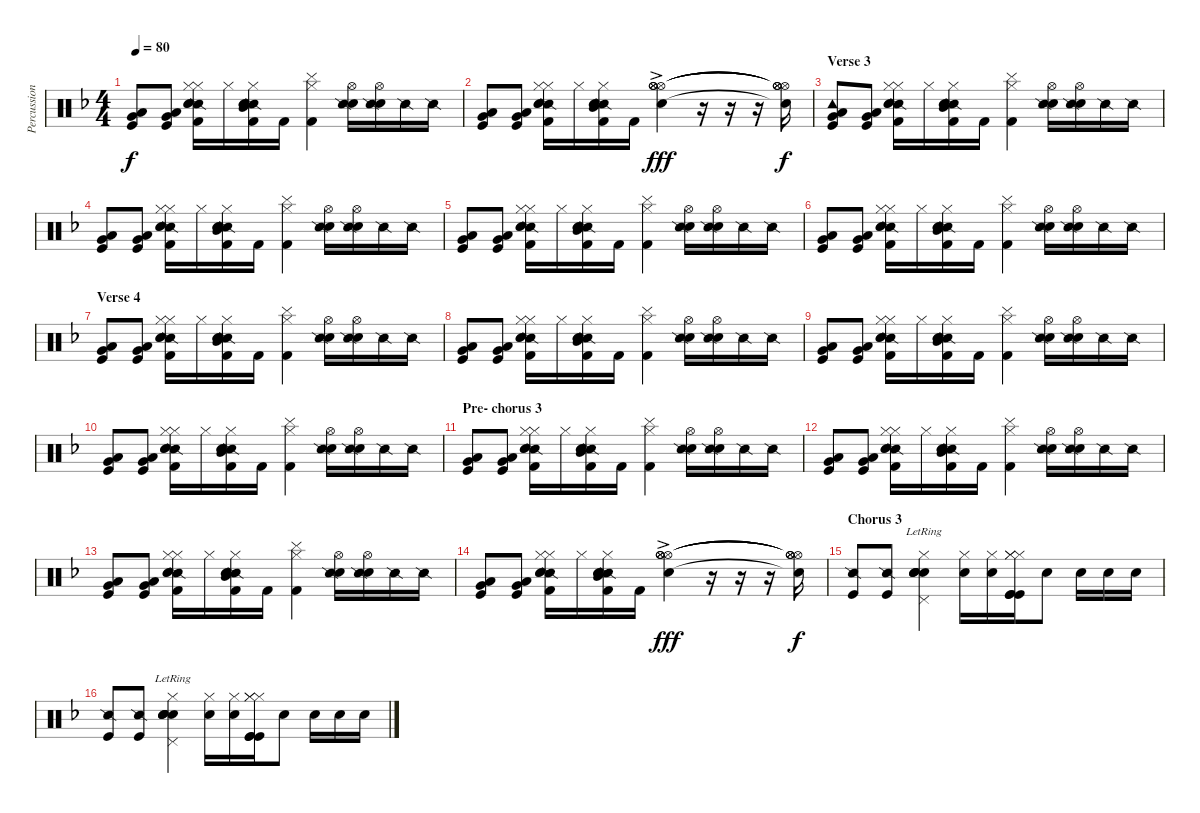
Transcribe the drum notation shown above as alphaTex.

\track ("Percussion" "Percussion") {instrument percussion}
\staff {score}
\articulation defaults
\ts (4 4)
\tempo 80
\clef neutral
\ks dminor
("Kick (hit)" "Low Floor Tom (hit)" "Very Low Tom (hit)").8{dy f volume 14} ("Kick (hit)" "Low Floor Tom (hit)" "Very Low Tom (hit)").8 ("Kick (hit) 2" "Hi-Hat (closed)" "Snare (side stick) 2" "Snare (hit) 2" "Electric Snare (hit)" "Hi-Hat (closed)").16 "Hi-Hat (closed)".16 ("Kick (hit) 2" "Hi-Hat (closed)" "Snare (side stick) 2" "Snare (hit) 2" "Electric Snare (hit)" "Mid Tom (hit)").16 "Kick (hit) 2".16 ("Kick (hit) 2" "Hi-Hat (closed)" "Cymbal (hit)").4 ("Electric Snare (hit)" "Hi-Hat (open)" "Snare (side stick) 2").16 ("Electric Snare (hit)" "Hi-Hat (open)" "Snare (side stick) 2").16 "Snare (side stick) 2".16 "Snare (side stick) 2".16 |
("Kick (hit)" "Low Floor Tom (hit)" "Very Low Tom (hit)").8{volume 14} ("Kick (hit)" "Low Floor Tom (hit)" "Very Low Tom (hit)").8 ("Kick (hit) 2" "Hi-Hat (closed)" "Snare (side stick) 2" "Snare (hit) 2" "Electric Snare (hit)" "Hi-Hat (closed)").16 "Hi-Hat (closed)".16 ("Kick (hit) 2" "Hi-Hat (closed)" "Snare (side stick) 2" "Snare (hit) 2" "Electric Snare (hit)" "Mid Tom (hit)").16 "Kick (hit) 2".16 ("Electric Snare (hit)"{ac} "Hi-Hat (open)"{ac} "Hi-Hat (open)"{ac} "Hi-Hat (open)"{ac} "Hi-Hat (open)"{ac}).4{dy fff} r.16 r.16 r.16 ("Electric Snare (hit)"{t} "Hi-Hat (open)"{t} "Hi-Hat (open)"{t} "Hi-Hat (open)"{t} "Hi-Hat (open)"{t}).16{dy f} |
\section ("" "Verse 3")
("Kick (hit)" "Low Floor Tom (hit)" "Very Low Tom (hit)" "Tambourine (hit)").8 ("Kick (hit)" "Low Floor Tom (hit)" "Very Low Tom (hit)").8 ("Kick (hit) 2" "Hi-Hat (closed)" "Snare (side stick) 2" "Snare (hit) 2" "Electric Snare (hit)" "Hi-Hat (closed)").16 "Hi-Hat (closed)".16 ("Kick (hit) 2" "Hi-Hat (closed)" "Snare (side stick) 2" "Snare (hit) 2" "Electric Snare (hit)" "Mid Tom (hit)").16 "Kick (hit) 2".16 ("Kick (hit) 2" "Hi-Hat (closed)" "Cymbal (hit)").4 ("Electric Snare (hit)" "Hi-Hat (open)" "Snare (side stick) 2").16 ("Electric Snare (hit)" "Hi-Hat (open)" "Snare (side stick) 2").16 "Snare (side stick) 2".16 "Snare (side stick) 2".16 |
("Kick (hit)" "Low Floor Tom (hit)" "Very Low Tom (hit)").8 ("Kick (hit)" "Low Floor Tom (hit)" "Very Low Tom (hit)").8 ("Kick (hit) 2" "Hi-Hat (closed)" "Snare (side stick) 2" "Snare (hit) 2" "Electric Snare (hit)" "Hi-Hat (closed)").16 "Hi-Hat (closed)".16 ("Kick (hit) 2" "Hi-Hat (closed)" "Snare (side stick) 2" "Snare (hit) 2" "Electric Snare (hit)" "Mid Tom (hit)").16 "Kick (hit) 2".16 ("Kick (hit) 2" "Hi-Hat (closed)" "Cymbal (hit)").4 ("Electric Snare (hit)" "Hi-Hat (open)" "Snare (side stick) 2").16 ("Electric Snare (hit)" "Hi-Hat (open)" "Snare (side stick) 2").16 "Snare (side stick) 2".16 "Snare (side stick) 2".16 |
("Kick (hit)" "Low Floor Tom (hit)" "Very Low Tom (hit)").8 ("Kick (hit)" "Low Floor Tom (hit)" "Very Low Tom (hit)").8 ("Kick (hit) 2" "Hi-Hat (closed)" "Snare (side stick) 2" "Snare (hit) 2" "Electric Snare (hit)" "Hi-Hat (closed)").16 "Hi-Hat (closed)".16 ("Kick (hit) 2" "Hi-Hat (closed)" "Snare (side stick) 2" "Snare (hit) 2" "Electric Snare (hit)" "Mid Tom (hit)").16 "Kick (hit) 2".16 ("Kick (hit) 2" "Hi-Hat (closed)" "Cymbal (hit)").4 ("Electric Snare (hit)" "Hi-Hat (open)" "Snare (side stick) 2").16 ("Electric Snare (hit)" "Hi-Hat (open)" "Snare (side stick) 2").16 "Snare (side stick) 2".16 "Snare (side stick) 2".16 |
("Kick (hit)" "Low Floor Tom (hit)" "Very Low Tom (hit)").8 ("Kick (hit)" "Low Floor Tom (hit)" "Very Low Tom (hit)").8 ("Kick (hit) 2" "Hi-Hat (closed)" "Snare (side stick) 2" "Snare (hit) 2" "Electric Snare (hit)" "Hi-Hat (closed)").16 "Hi-Hat (closed)".16 ("Kick (hit) 2" "Hi-Hat (closed)" "Snare (side stick) 2" "Snare (hit) 2" "Electric Snare (hit)" "Mid Tom (hit)").16 "Kick (hit) 2".16 ("Kick (hit) 2" "Hi-Hat (closed)" "Cymbal (hit)").4 ("Electric Snare (hit)" "Hi-Hat (open)" "Snare (side stick) 2").16 ("Electric Snare (hit)" "Hi-Hat (open)" "Snare (side stick) 2").16 "Snare (side stick) 2".16 "Snare (side stick) 2".16 |
\section ("" "Verse 4")
("Kick (hit)" "Low Floor Tom (hit)" "Very Low Tom (hit)").8 ("Kick (hit)" "Low Floor Tom (hit)" "Very Low Tom (hit)").8 ("Kick (hit) 2" "Hi-Hat (closed)" "Snare (side stick) 2" "Snare (hit) 2" "Electric Snare (hit)" "Hi-Hat (closed)").16 "Hi-Hat (closed)".16 ("Kick (hit) 2" "Hi-Hat (closed)" "Snare (side stick) 2" "Snare (hit) 2" "Electric Snare (hit)" "Mid Tom (hit)").16 "Kick (hit) 2".16 ("Kick (hit) 2" "Hi-Hat (closed)" "Cymbal (hit)").4 ("Electric Snare (hit)" "Hi-Hat (open)" "Snare (side stick) 2").16 ("Electric Snare (hit)" "Hi-Hat (open)" "Snare (side stick) 2").16 "Snare (side stick) 2".16 "Snare (side stick) 2".16 |
("Kick (hit)" "Low Floor Tom (hit)" "Very Low Tom (hit)").8 ("Kick (hit)" "Low Floor Tom (hit)" "Very Low Tom (hit)").8 ("Kick (hit) 2" "Hi-Hat (closed)" "Snare (side stick) 2" "Snare (hit) 2" "Electric Snare (hit)" "Hi-Hat (closed)").16 "Hi-Hat (closed)".16 ("Kick (hit) 2" "Hi-Hat (closed)" "Snare (side stick) 2" "Snare (hit) 2" "Electric Snare (hit)" "Mid Tom (hit)").16 "Kick (hit) 2".16 ("Kick (hit) 2" "Hi-Hat (closed)" "Cymbal (hit)").4 ("Electric Snare (hit)" "Hi-Hat (open)" "Snare (side stick) 2").16 ("Electric Snare (hit)" "Hi-Hat (open)" "Snare (side stick) 2").16 "Snare (side stick) 2".16 "Snare (side stick) 2".16 |
("Kick (hit)" "Low Floor Tom (hit)" "Very Low Tom (hit)").8 ("Kick (hit)" "Low Floor Tom (hit)" "Very Low Tom (hit)").8 ("Kick (hit) 2" "Hi-Hat (closed)" "Snare (side stick) 2" "Snare (hit) 2" "Electric Snare (hit)" "Hi-Hat (closed)").16 "Hi-Hat (closed)".16 ("Kick (hit) 2" "Hi-Hat (closed)" "Snare (side stick) 2" "Snare (hit) 2" "Electric Snare (hit)" "Mid Tom (hit)").16 "Kick (hit) 2".16 ("Kick (hit) 2" "Hi-Hat (closed)" "Cymbal (hit)").4 ("Electric Snare (hit)" "Hi-Hat (open)" "Snare (side stick) 2").16 ("Electric Snare (hit)" "Hi-Hat (open)" "Snare (side stick) 2").16 "Snare (side stick) 2".16 "Snare (side stick) 2".16 |
("Kick (hit)" "Low Floor Tom (hit)" "Very Low Tom (hit)").8 ("Kick (hit)" "Low Floor Tom (hit)" "Very Low Tom (hit)").8 ("Kick (hit) 2" "Hi-Hat (closed)" "Snare (side stick) 2" "Snare (hit) 2" "Electric Snare (hit)" "Hi-Hat (closed)").16 "Hi-Hat (closed)".16 ("Kick (hit) 2" "Hi-Hat (closed)" "Snare (side stick) 2" "Snare (hit) 2" "Electric Snare (hit)" "Mid Tom (hit)").16 "Kick (hit) 2".16 ("Kick (hit) 2" "Hi-Hat (closed)" "Cymbal (hit)").4 ("Electric Snare (hit)" "Hi-Hat (open)" "Snare (side stick) 2").16 ("Electric Snare (hit)" "Hi-Hat (open)" "Snare (side stick) 2").16 "Snare (side stick) 2".16 "Snare (side stick) 2".16 |
\section ("" "Pre- chorus 3")
("Kick (hit)" "Low Floor Tom (hit)" "Very Low Tom (hit)").8 ("Kick (hit)" "Low Floor Tom (hit)" "Very Low Tom (hit)").8 ("Kick (hit) 2" "Hi-Hat (closed)" "Snare (side stick) 2" "Snare (hit) 2" "Electric Snare (hit)" "Hi-Hat (closed)").16 "Hi-Hat (closed)".16 ("Kick (hit) 2" "Hi-Hat (closed)" "Snare (side stick) 2" "Snare (hit) 2" "Electric Snare (hit)" "Mid Tom (hit)").16 "Kick (hit) 2".16 ("Kick (hit) 2" "Hi-Hat (closed)" "Cymbal (hit)").4 ("Electric Snare (hit)" "Hi-Hat (open)" "Snare (side stick) 2").16 ("Electric Snare (hit)" "Hi-Hat (open)" "Snare (side stick) 2").16 "Snare (side stick) 2".16 "Snare (side stick) 2".16 |
("Kick (hit)" "Low Floor Tom (hit)" "Very Low Tom (hit)").8 ("Kick (hit)" "Low Floor Tom (hit)" "Very Low Tom (hit)").8 ("Kick (hit) 2" "Hi-Hat (closed)" "Snare (side stick) 2" "Snare (hit) 2" "Electric Snare (hit)" "Hi-Hat (closed)").16 "Hi-Hat (closed)".16 ("Kick (hit) 2" "Hi-Hat (closed)" "Snare (side stick) 2" "Snare (hit) 2" "Electric Snare (hit)" "Mid Tom (hit)").16 "Kick (hit) 2".16 ("Kick (hit) 2" "Hi-Hat (closed)" "Cymbal (hit)").4 ("Electric Snare (hit)" "Hi-Hat (open)" "Snare (side stick) 2").16 ("Electric Snare (hit)" "Hi-Hat (open)" "Snare (side stick) 2").16 "Snare (side stick) 2".16 "Snare (side stick) 2".16 |
("Kick (hit)" "Low Floor Tom (hit)" "Very Low Tom (hit)").8 ("Kick (hit)" "Low Floor Tom (hit)" "Very Low Tom (hit)").8 ("Kick (hit) 2" "Hi-Hat (closed)" "Snare (side stick) 2" "Snare (hit) 2" "Electric Snare (hit)" "Hi-Hat (closed)").16 "Hi-Hat (closed)".16 ("Kick (hit) 2" "Hi-Hat (closed)" "Snare (side stick) 2" "Snare (hit) 2" "Electric Snare (hit)" "Mid Tom (hit)").16 "Kick (hit) 2".16 ("Kick (hit) 2" "Hi-Hat (closed)" "Cymbal (hit)").4 ("Electric Snare (hit)" "Hi-Hat (open)" "Snare (side stick) 2").16 ("Electric Snare (hit)" "Hi-Hat (open)" "Snare (side stick) 2").16 "Snare (side stick) 2".16 "Snare (side stick) 2".16 |
("Kick (hit)" "Low Floor Tom (hit)" "Very Low Tom (hit)").8 ("Kick (hit)" "Low Floor Tom (hit)" "Very Low Tom (hit)").8 ("Kick (hit) 2" "Hi-Hat (closed)" "Snare (side stick) 2" "Snare (hit) 2" "Electric Snare (hit)" "Hi-Hat (closed)").16 "Hi-Hat (closed)".16 ("Kick (hit) 2" "Hi-Hat (closed)" "Snare (side stick) 2" "Snare (hit) 2" "Electric Snare (hit)" "Mid Tom (hit)").16 "Kick (hit) 2".16 ("Electric Snare (hit)"{ac} "Hi-Hat (open)"{ac} "Hi-Hat (open)"{ac} "Hi-Hat (open)"{ac} "Hi-Hat (open)"{ac}).4{dy fff} r.16 r.16 r.16 ("Electric Snare (hit)"{t} "Hi-Hat (open)"{t} "Hi-Hat (open)"{t} "Hi-Hat (open)"{t} "Hi-Hat (open)"{t}).16{dy f} |
\section ("" "Chorus 3")
("Kick (hit)" "Snare (side stick) 2").8{volume 13} ("Kick (hit)" "Snare (side stick) 2").8 ("Snare (hit) 2"{lr} "Snare (hit) 2"{lr} "Pedal Hi-Hat (hit)"{lr} "Hi-Hat (closed)"{lr} "Electric Snare (hit)"{lr} "Hand Clap (hit)"{lr}).4 ("Hi-Hat (closed)" "Electric Snare (hit)").16 ("Hi-Hat (closed)" "Electric Snare (hit)").16 ("Hi-Hat (closed)" "Hi-Hat (closed)" "Hi-Hat (closed)" "Kick (hit)" "Kick (hit)" "Kick (hit)").16 "Hand Clap (hit)".8 "Snare (hit) 2".16 "Snare (hit) 2".16 "Snare (hit) 2".16 |
("Kick (hit)" "Snare (side stick) 2").8{volume 14} ("Kick (hit)" "Snare (side stick) 2").8 ("Snare (hit) 2"{lr} "Snare (hit) 2"{lr} "Pedal Hi-Hat (hit)"{lr} "Hi-Hat (closed)"{lr} "Electric Snare (hit)"{lr} "Hand Clap (hit)"{lr}).4 ("Hi-Hat (closed)" "Electric Snare (hit)").16 ("Hi-Hat (closed)" "Electric Snare (hit)").16 ("Hi-Hat (closed)" "Hi-Hat (closed)" "Hi-Hat (closed)" "Kick (hit)" "Kick (hit)" "Kick (hit)").16 "Hand Clap (hit)".8 "Snare (hit) 2".16 "Snare (hit) 2".16 "Snare (hit) 2".16
